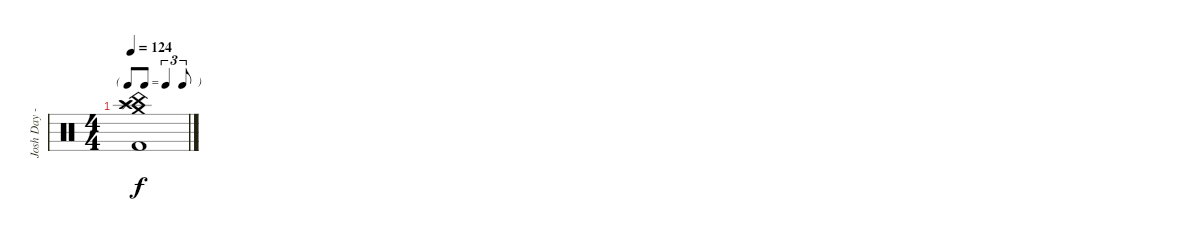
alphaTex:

\track ("Josh Day - Drums/Percussion" "Josh Day -") {instrument percussion}
\staff {score}
\articulation defaults
\ts (4 4)
\tf triplet8th
\tempo 124
\clef neutral
\ks c
("Crash medium (hit)" "Crash high (hit)" "Splash (hit)" "China (hit)" "Kick (hit) 2").1{dy f}
